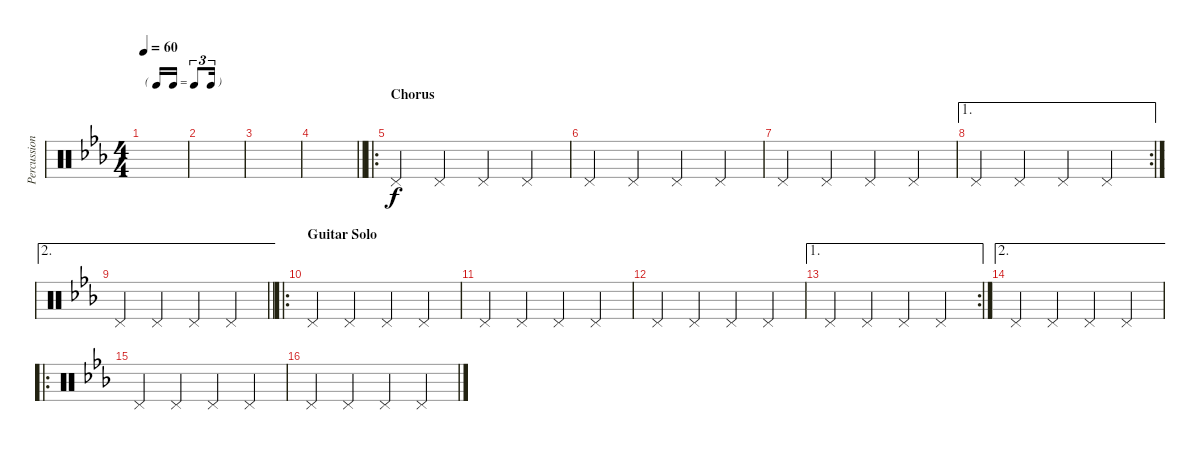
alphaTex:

\track ("Percussioni" "Percussion") {instrument percussion}
\staff {score}
\articulation defaults
\ts (4 4)
\tf triplet16th
\tempo 60
\clef neutral
\ks cminor
|
|
|
\barLineRight lightlight
|
\ro
\section ("" "Chorus")
"Pedal Hi-Hat (hit)".4 "Pedal Hi-Hat (hit)".4 "Pedal Hi-Hat (hit)".4 "Pedal Hi-Hat (hit)".4 |
"Pedal Hi-Hat (hit)".4 "Pedal Hi-Hat (hit)".4 "Pedal Hi-Hat (hit)".4 "Pedal Hi-Hat (hit)".4 |
"Pedal Hi-Hat (hit)".4 "Pedal Hi-Hat (hit)".4 "Pedal Hi-Hat (hit)".4 "Pedal Hi-Hat (hit)".4 |
\ae 1
\rc 2 "Pedal Hi-Hat (hit)".4 "Pedal Hi-Hat (hit)".4 "Pedal Hi-Hat (hit)".4 "Pedal Hi-Hat (hit)".4
|
\ae 2
\barLineRight lightlight "Pedal Hi-Hat (hit)".4 "Pedal Hi-Hat (hit)".4 "Pedal Hi-Hat (hit)".4 "Pedal Hi-Hat (hit)".4
|
\ro
\section ("" "Guitar Solo")
"Pedal Hi-Hat (hit)".4 "Pedal Hi-Hat (hit)".4 "Pedal Hi-Hat (hit)".4 "Pedal Hi-Hat (hit)".4 |
"Pedal Hi-Hat (hit)".4 "Pedal Hi-Hat (hit)".4 "Pedal Hi-Hat (hit)".4 "Pedal Hi-Hat (hit)".4 |
"Pedal Hi-Hat (hit)".4 "Pedal Hi-Hat (hit)".4 "Pedal Hi-Hat (hit)".4 "Pedal Hi-Hat (hit)".4 |
\ae 1
\rc 2 "Pedal Hi-Hat (hit)".4 "Pedal Hi-Hat (hit)".4 "Pedal Hi-Hat (hit)".4 "Pedal Hi-Hat (hit)".4
|
\ae 2 "Pedal Hi-Hat (hit)".4 "Pedal Hi-Hat (hit)".4 "Pedal Hi-Hat (hit)".4 "Pedal Hi-Hat (hit)".4
|
\ro "Pedal Hi-Hat (hit)".4 "Pedal Hi-Hat (hit)".4 "Pedal Hi-Hat (hit)".4 "Pedal Hi-Hat (hit)".4
|
"Pedal Hi-Hat (hit)".4 "Pedal Hi-Hat (hit)".4 "Pedal Hi-Hat (hit)".4 "Pedal Hi-Hat (hit)".4
